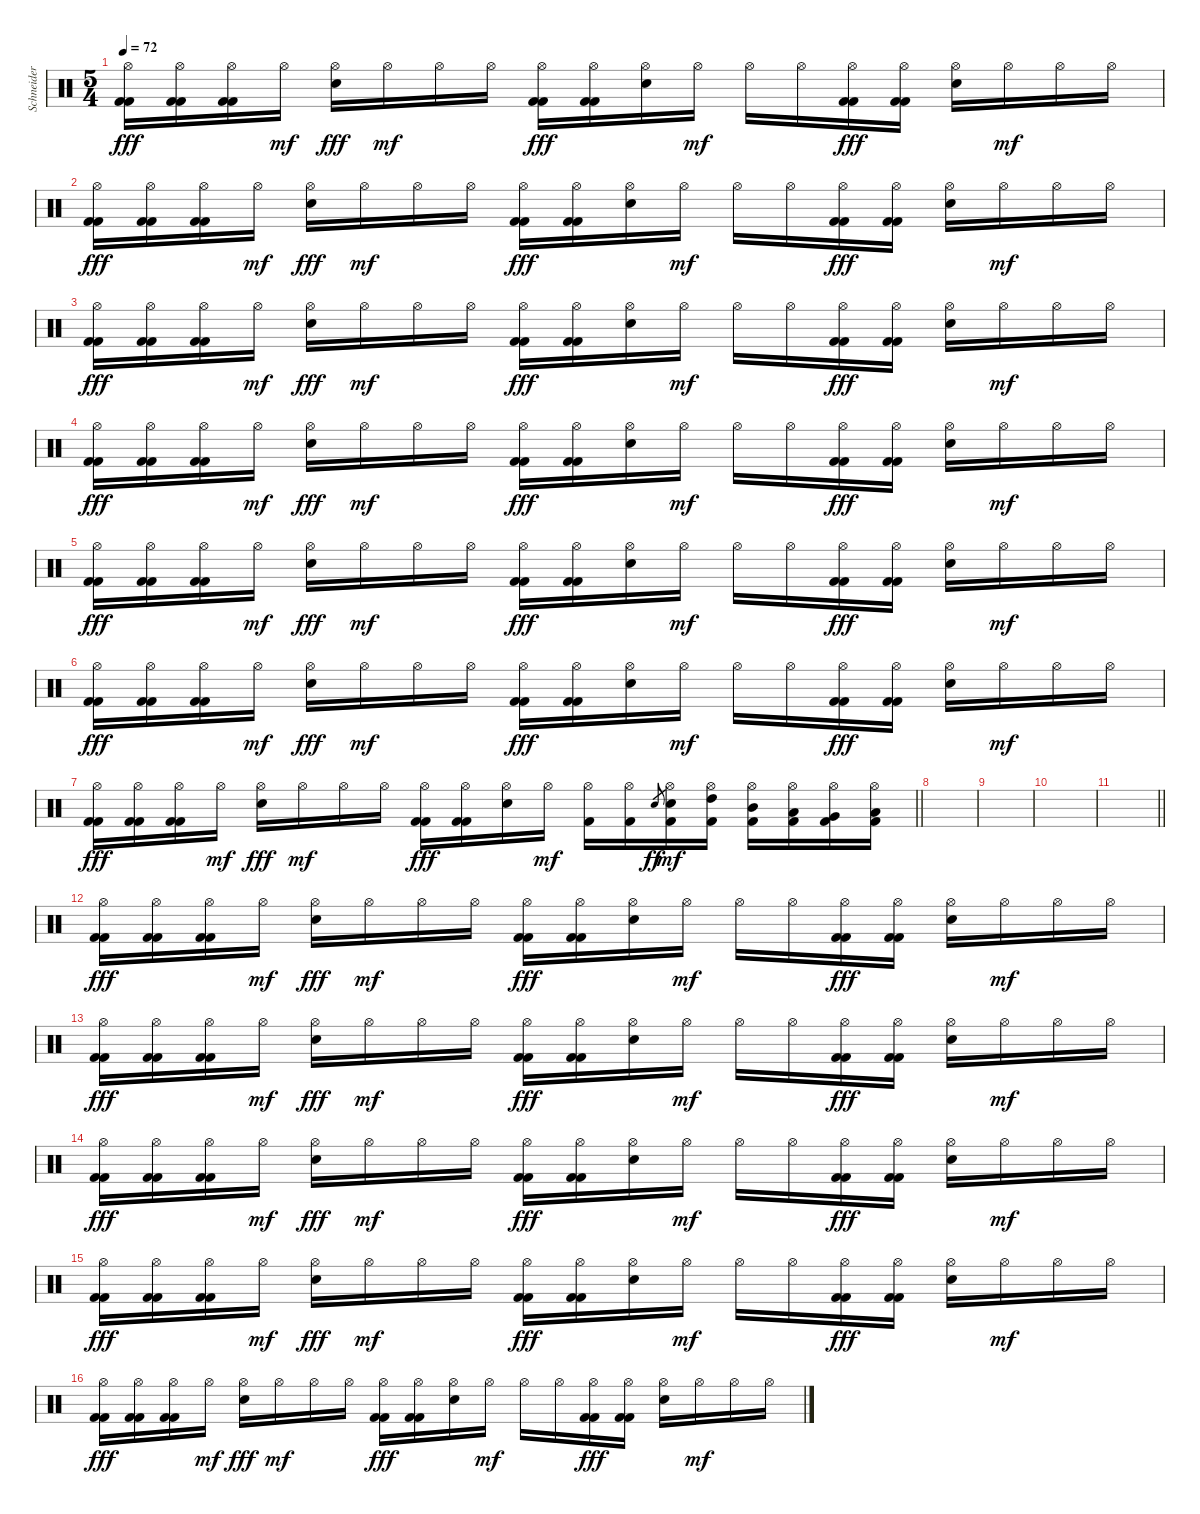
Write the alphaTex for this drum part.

\track ("Schneider" "Schneider") {instrument percussion}
\staff {score}
\articulation defaults
\ts (5 4)
\tempo 72
\clef neutral
\ks c
("Hi-Hat (open)" "Kick (hit) 2" "Kick (hit) 2").16{dy fff} ("Hi-Hat (open)" "Kick (hit) 2" "Kick (hit) 2").16 ("Hi-Hat (open)" "Kick (hit) 2" "Kick (hit) 2").16 "Hi-Hat (open)".16{dy mf} ("Hi-Hat (open)" "Snare (hit) 2").16{dy fff} "Hi-Hat (open)".16{dy mf} "Hi-Hat (open)".16 "Hi-Hat (open)".16 ("Hi-Hat (open)" "Kick (hit) 2" "Kick (hit) 2").16{dy fff} ("Hi-Hat (open)" "Kick (hit) 2" "Kick (hit) 2").16 ("Hi-Hat (open)" "Snare (hit) 2").16 "Hi-Hat (open)".16{dy mf} "Hi-Hat (open)".16 "Hi-Hat (open)".16 ("Hi-Hat (open)" "Kick (hit) 2" "Kick (hit) 2").16{dy fff} ("Hi-Hat (open)" "Kick (hit) 2" "Kick (hit) 2").16 ("Hi-Hat (open)" "Snare (hit) 2").16 "Hi-Hat (open)".16{dy mf} "Hi-Hat (open)".16 "Hi-Hat (open)".16 |
("Hi-Hat (open)" "Kick (hit) 2" "Kick (hit) 2").16{dy fff} ("Hi-Hat (open)" "Kick (hit) 2" "Kick (hit) 2").16 ("Hi-Hat (open)" "Kick (hit) 2" "Kick (hit) 2").16 "Hi-Hat (open)".16{dy mf} ("Hi-Hat (open)" "Snare (hit) 2").16{dy fff} "Hi-Hat (open)".16{dy mf} "Hi-Hat (open)".16 "Hi-Hat (open)".16 ("Hi-Hat (open)" "Kick (hit) 2" "Kick (hit) 2").16{dy fff} ("Hi-Hat (open)" "Kick (hit) 2" "Kick (hit) 2").16 ("Hi-Hat (open)" "Snare (hit) 2").16 "Hi-Hat (open)".16{dy mf} "Hi-Hat (open)".16 "Hi-Hat (open)".16 ("Hi-Hat (open)" "Kick (hit) 2" "Kick (hit) 2").16{dy fff} ("Hi-Hat (open)" "Kick (hit) 2" "Kick (hit) 2").16 ("Hi-Hat (open)" "Snare (hit) 2").16 "Hi-Hat (open)".16{dy mf} "Hi-Hat (open)".16 "Hi-Hat (open)".16 |
("Hi-Hat (open)" "Kick (hit) 2" "Kick (hit) 2").16{dy fff} ("Hi-Hat (open)" "Kick (hit) 2" "Kick (hit) 2").16 ("Hi-Hat (open)" "Kick (hit) 2" "Kick (hit) 2").16 "Hi-Hat (open)".16{dy mf} ("Hi-Hat (open)" "Snare (hit) 2").16{dy fff} "Hi-Hat (open)".16{dy mf} "Hi-Hat (open)".16 "Hi-Hat (open)".16 ("Hi-Hat (open)" "Kick (hit) 2" "Kick (hit) 2").16{dy fff} ("Hi-Hat (open)" "Kick (hit) 2" "Kick (hit) 2").16 ("Hi-Hat (open)" "Snare (hit) 2").16 "Hi-Hat (open)".16{dy mf} "Hi-Hat (open)".16 "Hi-Hat (open)".16 ("Hi-Hat (open)" "Kick (hit) 2" "Kick (hit) 2").16{dy fff} ("Hi-Hat (open)" "Kick (hit) 2" "Kick (hit) 2").16 ("Hi-Hat (open)" "Snare (hit) 2").16 "Hi-Hat (open)".16{dy mf} "Hi-Hat (open)".16 "Hi-Hat (open)".16 |
("Hi-Hat (open)" "Kick (hit) 2" "Kick (hit) 2").16{dy fff} ("Hi-Hat (open)" "Kick (hit) 2" "Kick (hit) 2").16 ("Hi-Hat (open)" "Kick (hit) 2" "Kick (hit) 2").16 "Hi-Hat (open)".16{dy mf} ("Hi-Hat (open)" "Snare (hit) 2").16{dy fff} "Hi-Hat (open)".16{dy mf} "Hi-Hat (open)".16 "Hi-Hat (open)".16 ("Hi-Hat (open)" "Kick (hit) 2" "Kick (hit) 2").16{dy fff} ("Hi-Hat (open)" "Kick (hit) 2" "Kick (hit) 2").16 ("Hi-Hat (open)" "Snare (hit) 2").16 "Hi-Hat (open)".16{dy mf} "Hi-Hat (open)".16 "Hi-Hat (open)".16 ("Hi-Hat (open)" "Kick (hit) 2" "Kick (hit) 2").16{dy fff} ("Hi-Hat (open)" "Kick (hit) 2" "Kick (hit) 2").16 ("Hi-Hat (open)" "Snare (hit) 2").16 "Hi-Hat (open)".16{dy mf} "Hi-Hat (open)".16 "Hi-Hat (open)".16 |
("Hi-Hat (open)" "Kick (hit) 2" "Kick (hit) 2").16{dy fff} ("Hi-Hat (open)" "Kick (hit) 2" "Kick (hit) 2").16 ("Hi-Hat (open)" "Kick (hit) 2" "Kick (hit) 2").16 "Hi-Hat (open)".16{dy mf} ("Hi-Hat (open)" "Snare (hit) 2").16{dy fff} "Hi-Hat (open)".16{dy mf} "Hi-Hat (open)".16 "Hi-Hat (open)".16 ("Hi-Hat (open)" "Kick (hit) 2" "Kick (hit) 2").16{dy fff} ("Hi-Hat (open)" "Kick (hit) 2" "Kick (hit) 2").16 ("Hi-Hat (open)" "Snare (hit) 2").16 "Hi-Hat (open)".16{dy mf} "Hi-Hat (open)".16 "Hi-Hat (open)".16 ("Hi-Hat (open)" "Kick (hit) 2" "Kick (hit) 2").16{dy fff} ("Hi-Hat (open)" "Kick (hit) 2" "Kick (hit) 2").16 ("Hi-Hat (open)" "Snare (hit) 2").16 "Hi-Hat (open)".16{dy mf} "Hi-Hat (open)".16 "Hi-Hat (open)".16 |
("Hi-Hat (open)" "Kick (hit) 2" "Kick (hit) 2").16{dy fff} ("Hi-Hat (open)" "Kick (hit) 2" "Kick (hit) 2").16 ("Hi-Hat (open)" "Kick (hit) 2" "Kick (hit) 2").16 "Hi-Hat (open)".16{dy mf} ("Hi-Hat (open)" "Snare (hit) 2").16{dy fff} "Hi-Hat (open)".16{dy mf} "Hi-Hat (open)".16 "Hi-Hat (open)".16 ("Hi-Hat (open)" "Kick (hit) 2" "Kick (hit) 2").16{dy fff} ("Hi-Hat (open)" "Kick (hit) 2" "Kick (hit) 2").16 ("Hi-Hat (open)" "Snare (hit) 2").16 "Hi-Hat (open)".16{dy mf} "Hi-Hat (open)".16 "Hi-Hat (open)".16 ("Hi-Hat (open)" "Kick (hit) 2" "Kick (hit) 2").16{dy fff} ("Hi-Hat (open)" "Kick (hit) 2" "Kick (hit) 2").16 ("Hi-Hat (open)" "Snare (hit) 2").16 "Hi-Hat (open)".16{dy mf} "Hi-Hat (open)".16 "Hi-Hat (open)".16 |
\barLineRight lightlight
("Hi-Hat (open)" "Kick (hit) 2" "Kick (hit) 2").16{dy fff} ("Hi-Hat (open)" "Kick (hit) 2" "Kick (hit) 2").16 ("Hi-Hat (open)" "Kick (hit) 2" "Kick (hit) 2").16 "Hi-Hat (open)".16{dy mf} ("Hi-Hat (open)" "Snare (hit) 2").16{dy fff} "Hi-Hat (open)".16{dy mf} "Hi-Hat (open)".16 "Hi-Hat (open)".16 ("Hi-Hat (open)" "Kick (hit) 2" "Kick (hit) 2").16{dy fff} ("Hi-Hat (open)" "Kick (hit) 2" "Kick (hit) 2").16 ("Hi-Hat (open)" "Snare (hit) 2").16 "Hi-Hat (open)".16{dy mf} ("Hi-Hat (open)" "Kick (hit) 2").16 ("Hi-Hat (open)" "Kick (hit) 2").16 "Snare (hit) 2".8{gr dy ff} ("Hi-Hat (open)" "Snare (hit) 2" "Kick (hit) 2").16{dy mf} ("Hi-Hat (open)" "High Tom (hit)" "Kick (hit) 2").16 ("Hi-Hat (open)" "Mid Tom (hit)" "Kick (hit) 2").16 ("Hi-Hat (open)" "Low Tom (hit)" "Kick (hit) 2").16 ("Hi-Hat (open)" "Very Low Tom (hit)" "Kick (hit) 2").16 ("Hi-Hat (open)" "Low Floor Tom (hit)" "Kick (hit) 2").16 |
|
|
|
\barLineRight lightlight
|
("Hi-Hat (open)" "Kick (hit) 2" "Kick (hit) 2").16{dy fff} ("Hi-Hat (open)" "Kick (hit) 2" "Kick (hit) 2").16 ("Hi-Hat (open)" "Kick (hit) 2" "Kick (hit) 2").16 "Hi-Hat (open)".16{dy mf} ("Hi-Hat (open)" "Snare (hit) 2").16{dy fff} "Hi-Hat (open)".16{dy mf} "Hi-Hat (open)".16 "Hi-Hat (open)".16 ("Hi-Hat (open)" "Kick (hit) 2" "Kick (hit) 2").16{dy fff} ("Hi-Hat (open)" "Kick (hit) 2" "Kick (hit) 2").16 ("Hi-Hat (open)" "Snare (hit) 2").16 "Hi-Hat (open)".16{dy mf} "Hi-Hat (open)".16 "Hi-Hat (open)".16 ("Hi-Hat (open)" "Kick (hit) 2" "Kick (hit) 2").16{dy fff} ("Hi-Hat (open)" "Kick (hit) 2" "Kick (hit) 2").16 ("Hi-Hat (open)" "Snare (hit) 2").16 "Hi-Hat (open)".16{dy mf} "Hi-Hat (open)".16 "Hi-Hat (open)".16 |
("Hi-Hat (open)" "Kick (hit) 2" "Kick (hit) 2").16{dy fff} ("Hi-Hat (open)" "Kick (hit) 2" "Kick (hit) 2").16 ("Hi-Hat (open)" "Kick (hit) 2" "Kick (hit) 2").16 "Hi-Hat (open)".16{dy mf} ("Hi-Hat (open)" "Snare (hit) 2").16{dy fff} "Hi-Hat (open)".16{dy mf} "Hi-Hat (open)".16 "Hi-Hat (open)".16 ("Hi-Hat (open)" "Kick (hit) 2" "Kick (hit) 2").16{dy fff} ("Hi-Hat (open)" "Kick (hit) 2" "Kick (hit) 2").16 ("Hi-Hat (open)" "Snare (hit) 2").16 "Hi-Hat (open)".16{dy mf} "Hi-Hat (open)".16 "Hi-Hat (open)".16 ("Hi-Hat (open)" "Kick (hit) 2" "Kick (hit) 2").16{dy fff} ("Hi-Hat (open)" "Kick (hit) 2" "Kick (hit) 2").16 ("Hi-Hat (open)" "Snare (hit) 2").16 "Hi-Hat (open)".16{dy mf} "Hi-Hat (open)".16 "Hi-Hat (open)".16 |
("Hi-Hat (open)" "Kick (hit) 2" "Kick (hit) 2").16{dy fff} ("Hi-Hat (open)" "Kick (hit) 2" "Kick (hit) 2").16 ("Hi-Hat (open)" "Kick (hit) 2" "Kick (hit) 2").16 "Hi-Hat (open)".16{dy mf} ("Hi-Hat (open)" "Snare (hit) 2").16{dy fff} "Hi-Hat (open)".16{dy mf} "Hi-Hat (open)".16 "Hi-Hat (open)".16 ("Hi-Hat (open)" "Kick (hit) 2" "Kick (hit) 2").16{dy fff} ("Hi-Hat (open)" "Kick (hit) 2" "Kick (hit) 2").16 ("Hi-Hat (open)" "Snare (hit) 2").16 "Hi-Hat (open)".16{dy mf} "Hi-Hat (open)".16 "Hi-Hat (open)".16 ("Hi-Hat (open)" "Kick (hit) 2" "Kick (hit) 2").16{dy fff} ("Hi-Hat (open)" "Kick (hit) 2" "Kick (hit) 2").16 ("Hi-Hat (open)" "Snare (hit) 2").16 "Hi-Hat (open)".16{dy mf} "Hi-Hat (open)".16 "Hi-Hat (open)".16 |
("Hi-Hat (open)" "Kick (hit) 2" "Kick (hit) 2").16{dy fff} ("Hi-Hat (open)" "Kick (hit) 2" "Kick (hit) 2").16 ("Hi-Hat (open)" "Kick (hit) 2" "Kick (hit) 2").16 "Hi-Hat (open)".16{dy mf} ("Hi-Hat (open)" "Snare (hit) 2").16{dy fff} "Hi-Hat (open)".16{dy mf} "Hi-Hat (open)".16 "Hi-Hat (open)".16 ("Hi-Hat (open)" "Kick (hit) 2" "Kick (hit) 2").16{dy fff} ("Hi-Hat (open)" "Kick (hit) 2" "Kick (hit) 2").16 ("Hi-Hat (open)" "Snare (hit) 2").16 "Hi-Hat (open)".16{dy mf} "Hi-Hat (open)".16 "Hi-Hat (open)".16 ("Hi-Hat (open)" "Kick (hit) 2" "Kick (hit) 2").16{dy fff} ("Hi-Hat (open)" "Kick (hit) 2" "Kick (hit) 2").16 ("Hi-Hat (open)" "Snare (hit) 2").16 "Hi-Hat (open)".16{dy mf} "Hi-Hat (open)".16 "Hi-Hat (open)".16 |
("Hi-Hat (open)" "Kick (hit) 2" "Kick (hit) 2").16{dy fff} ("Hi-Hat (open)" "Kick (hit) 2" "Kick (hit) 2").16 ("Hi-Hat (open)" "Kick (hit) 2" "Kick (hit) 2").16 "Hi-Hat (open)".16{dy mf} ("Hi-Hat (open)" "Snare (hit) 2").16{dy fff} "Hi-Hat (open)".16{dy mf} "Hi-Hat (open)".16 "Hi-Hat (open)".16 ("Hi-Hat (open)" "Kick (hit) 2" "Kick (hit) 2").16{dy fff} ("Hi-Hat (open)" "Kick (hit) 2" "Kick (hit) 2").16 ("Hi-Hat (open)" "Snare (hit) 2").16 "Hi-Hat (open)".16{dy mf} "Hi-Hat (open)".16 "Hi-Hat (open)".16 ("Hi-Hat (open)" "Kick (hit) 2" "Kick (hit) 2").16{dy fff} ("Hi-Hat (open)" "Kick (hit) 2" "Kick (hit) 2").16 ("Hi-Hat (open)" "Snare (hit) 2").16 "Hi-Hat (open)".16{dy mf} "Hi-Hat (open)".16 "Hi-Hat (open)".16
